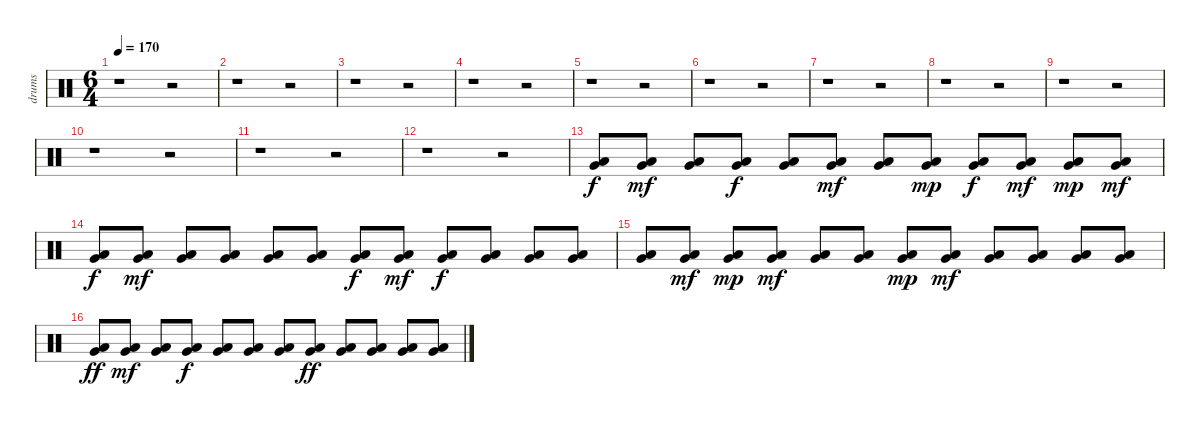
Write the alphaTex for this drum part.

\track ("drums" "drums") {instrument percussion}
\staff {score}
\articulation defaults
\ts (6 4)
\tempo 170
\clef neutral
\ks c
r.1{dy f} r.2 |
r.1 r.2 |
r.1 r.2 |
r.1 r.2 |
r.1 r.2 |
r.1 r.2 |
r.1 r.2 |
r.1 r.2 |
r.1 r.2 |
r.1 r.2 |
r.1 r.2 |
r.1 r.2 |
("Very Low Tom (hit)" "Low Floor Tom (hit)").8{volume 8} ("Low Floor Tom (hit)" "Very Low Tom (hit)").8{dy mf volume 8} ("Low Floor Tom (hit)" "Very Low Tom (hit)").8{volume 8} ("Very Low Tom (hit)" "Low Floor Tom (hit)").8{dy f volume 8} ("Very Low Tom (hit)" "Low Floor Tom (hit)").8{volume 8} ("Very Low Tom (hit)" "Low Floor Tom (hit)").8{dy mf volume 8} ("Very Low Tom (hit)" "Low Floor Tom (hit)").8{volume 8} ("Very Low Tom (hit)" "Low Floor Tom (hit)").8{dy mp volume 9} ("Very Low Tom (hit)" "Low Floor Tom (hit)").8{dy f volume 9} ("Low Floor Tom (hit)" "Very Low Tom (hit)").8{dy mf volume 9} ("Low Floor Tom (hit)" "Very Low Tom (hit)").8{dy mp volume 9} ("Low Floor Tom (hit)" "Very Low Tom (hit)").8{dy mf volume 9} |
("Low Floor Tom (hit)" "Very Low Tom (hit)").8{dy f volume 10} ("Low Floor Tom (hit)" "Very Low Tom (hit)").8{dy mf volume 10} ("Low Floor Tom (hit)" "Very Low Tom (hit)").8{volume 10} ("Very Low Tom (hit)" "Low Floor Tom (hit)").8{volume 10} ("Very Low Tom (hit)" "Low Floor Tom (hit)").8{volume 10} ("Low Floor Tom (hit)" "Very Low Tom (hit)").8{volume 10} ("Very Low Tom (hit)" "Low Floor Tom (hit)").8{dy f volume 11} ("Low Floor Tom (hit)" "Very Low Tom (hit)").8{dy mf volume 11} ("Low Floor Tom (hit)" "Very Low Tom (hit)").8{dy f volume 11} ("Low Floor Tom (hit)" "Very Low Tom (hit)").8{volume 11} ("Very Low Tom (hit)" "Low Floor Tom (hit)").8{volume 11} ("Low Floor Tom (hit)" "Very Low Tom (hit)").8{volume 12} |
("Very Low Tom (hit)" "Low Floor Tom (hit)").8{volume 12} ("Low Floor Tom (hit)" "Very Low Tom (hit)").8{dy mf volume 12} ("Very Low Tom (hit)" "Low Floor Tom (hit)").8{dy mp volume 12} ("Low Floor Tom (hit)" "Very Low Tom (hit)").8{dy mf volume 12} ("Very Low Tom (hit)" "Low Floor Tom (hit)").8{volume 12} ("Very Low Tom (hit)" "Low Floor Tom (hit)").8{volume 12} ("Very Low Tom (hit)" "Low Floor Tom (hit)").8{dy mp volume 13} ("Low Floor Tom (hit)" "Very Low Tom (hit)").8{dy mf volume 13} ("Low Floor Tom (hit)" "Very Low Tom (hit)").8{volume 13} ("Low Floor Tom (hit)" "Very Low Tom (hit)").8{volume 13} ("Low Floor Tom (hit)" "Very Low Tom (hit)").8{volume 13} ("Low Floor Tom (hit)" "Very Low Tom (hit)").8{volume 14} |
("Very Low Tom (hit)" "Low Floor Tom (hit)").8{dy ff volume 14} ("Low Floor Tom (hit)" "Very Low Tom (hit)").8{dy mf volume 14} ("Low Floor Tom (hit)" "Very Low Tom (hit)").8{volume 14} ("Very Low Tom (hit)" "Low Floor Tom (hit)").8{dy f volume 14} ("Low Floor Tom (hit)" "Very Low Tom (hit)").8{volume 14} ("Low Floor Tom (hit)" "Very Low Tom (hit)").8{volume 15} ("Very Low Tom (hit)" "Low Floor Tom (hit)").8{volume 15} ("Very Low Tom (hit)" "Low Floor Tom (hit)").8{dy ff volume 15} ("Low Floor Tom (hit)" "Very Low Tom (hit)").8{volume 15} ("Low Floor Tom (hit)" "Very Low Tom (hit)").8{volume 15} ("Low Floor Tom (hit)" "Very Low Tom (hit)").8{volume 16} ("Very Low Tom (hit)" "Low Floor Tom (hit)").8{volume 16}
